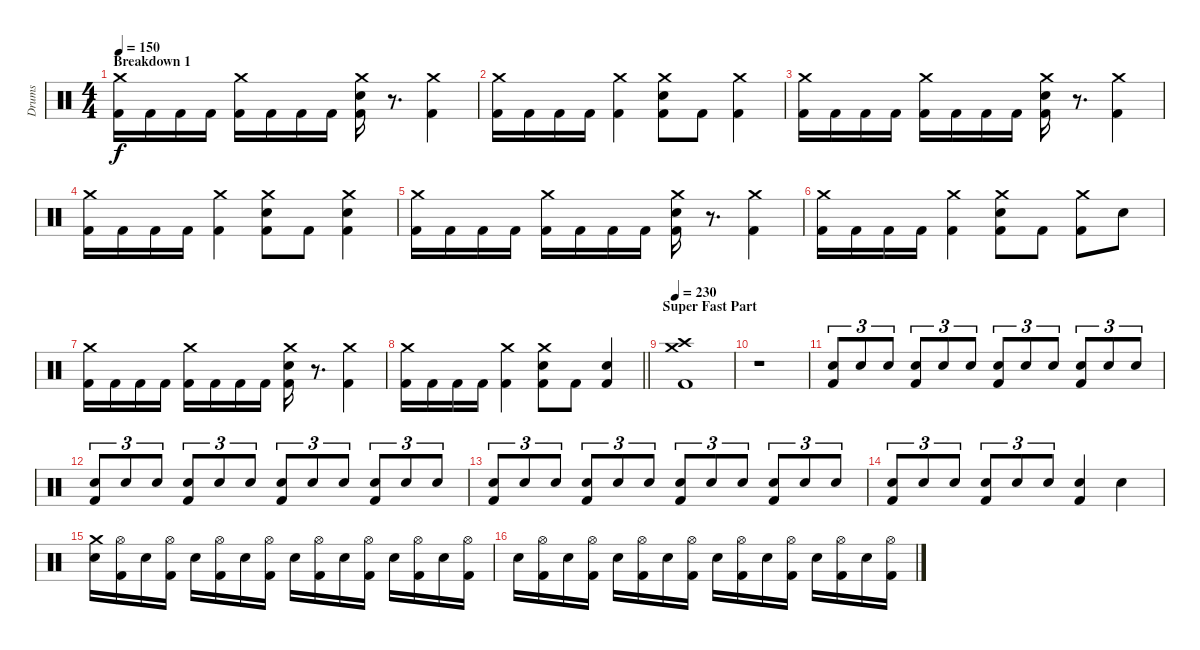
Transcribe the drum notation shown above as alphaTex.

\track ("Drums" "Drums") {instrument percussion}
\staff {score}
\articulation defaults
\ts (4 4)
\section ("" "Breakdown 1")
\tempo 150
\clef neutral
\ks c
("Crash medium (hit)" "Kick (hit) 2").16{dy f} "Kick (hit) 2".16 "Kick (hit) 2".16 "Kick (hit) 2".16 ("Crash medium (hit)" "Kick (hit) 2").16 "Kick (hit) 2".16 "Kick (hit) 2".16 "Kick (hit) 2".16 ("Crash medium (hit)" "Snare (hit) 2" "Kick (hit) 2").16 r.8{d} ("Crash medium (hit)" "Kick (hit) 2").4 |
("Crash medium (hit)" "Kick (hit) 2").16 "Kick (hit) 2".16 "Kick (hit) 2".16 "Kick (hit) 2".16 ("Crash medium (hit)" "Kick (hit) 2").4 ("Crash medium (hit)" "Snare (hit) 2" "Kick (hit) 2").8 "Kick (hit) 2".8 ("Crash medium (hit)" "Kick (hit) 2").4 |
("Crash medium (hit)" "Kick (hit) 2").16 "Kick (hit) 2".16 "Kick (hit) 2".16 "Kick (hit) 2".16 ("Crash medium (hit)" "Kick (hit) 2").16 "Kick (hit) 2".16 "Kick (hit) 2".16 "Kick (hit) 2".16 ("Crash medium (hit)" "Snare (hit) 2" "Kick (hit) 2").16 r.8{d} ("Crash medium (hit)" "Kick (hit) 2").4 |
("Crash medium (hit)" "Kick (hit) 2").16 "Kick (hit) 2".16 "Kick (hit) 2".16 "Kick (hit) 2".16 ("Crash medium (hit)" "Kick (hit) 2").4 ("Crash medium (hit)" "Snare (hit) 2" "Kick (hit) 2").8 "Kick (hit) 2".8 ("Crash medium (hit)" "Snare (hit) 2" "Kick (hit) 2").4 |
("Crash medium (hit)" "Kick (hit) 2").16 "Kick (hit) 2".16 "Kick (hit) 2".16 "Kick (hit) 2".16 ("Crash medium (hit)" "Kick (hit) 2").16 "Kick (hit) 2".16 "Kick (hit) 2".16 "Kick (hit) 2".16 ("Crash medium (hit)" "Snare (hit) 2" "Kick (hit) 2").16 r.8{d} ("Crash medium (hit)" "Kick (hit) 2").4 |
("Crash medium (hit)" "Kick (hit) 2").16 "Kick (hit) 2".16 "Kick (hit) 2".16 "Kick (hit) 2".16 ("Crash medium (hit)" "Kick (hit) 2").4 ("Crash medium (hit)" "Snare (hit) 2" "Kick (hit) 2").8 "Kick (hit) 2".8 ("Crash medium (hit)" "Kick (hit) 2").8 "Snare (hit) 2".8 |
("Crash medium (hit)" "Kick (hit) 2").16 "Kick (hit) 2".16 "Kick (hit) 2".16 "Kick (hit) 2".16 ("Crash medium (hit)" "Kick (hit) 2").16 "Kick (hit) 2".16 "Kick (hit) 2".16 "Kick (hit) 2".16 ("Crash medium (hit)" "Snare (hit) 2" "Kick (hit) 2").16 r.8{d} ("Crash medium (hit)" "Kick (hit) 2").4 |
\barLineRight lightlight
("Crash medium (hit)" "Kick (hit) 2").16 "Kick (hit) 2".16 "Kick (hit) 2".16 "Kick (hit) 2".16 ("Crash medium (hit)" "Kick (hit) 2").4 ("Crash medium (hit)" "Snare (hit) 2" "Kick (hit) 2").8 "Kick (hit) 2".8 ("Snare (hit) 2" "Kick (hit) 2").4 |
\section ("" "Super Fast Part")
\tempo 230
("Crash medium (hit)" "Crash high (hit)" "Kick (hit) 2").1 |
r.1 |
("Snare (hit) 2" "Kick (hit) 2").8{tu (3 2)} "Snare (hit) 2".8{tu (3 2)} "Snare (hit) 2".8{tu (3 2)} ("Snare (hit) 2" "Kick (hit) 2").8{tu (3 2)} "Snare (hit) 2".8{tu (3 2)} "Snare (hit) 2".8{tu (3 2)} ("Snare (hit) 2" "Kick (hit) 2").8{tu (3 2)} "Snare (hit) 2".8{tu (3 2)} "Snare (hit) 2".8{tu (3 2)} ("Snare (hit) 2" "Kick (hit) 2").8{tu (3 2)} "Snare (hit) 2".8{tu (3 2)} "Snare (hit) 2".8{tu (3 2)} |
("Snare (hit) 2" "Kick (hit) 2").8{tu (3 2)} "Snare (hit) 2".8{tu (3 2)} "Snare (hit) 2".8{tu (3 2)} ("Snare (hit) 2" "Kick (hit) 2").8{tu (3 2)} "Snare (hit) 2".8{tu (3 2)} "Snare (hit) 2".8{tu (3 2)} ("Snare (hit) 2" "Kick (hit) 2").8{tu (3 2)} "Snare (hit) 2".8{tu (3 2)} "Snare (hit) 2".8{tu (3 2)} ("Snare (hit) 2" "Kick (hit) 2").8{tu (3 2)} "Snare (hit) 2".8{tu (3 2)} "Snare (hit) 2".8{tu (3 2)} |
("Snare (hit) 2" "Kick (hit) 2").8{tu (3 2)} "Snare (hit) 2".8{tu (3 2)} "Snare (hit) 2".8{tu (3 2)} ("Snare (hit) 2" "Kick (hit) 2").8{tu (3 2)} "Snare (hit) 2".8{tu (3 2)} "Snare (hit) 2".8{tu (3 2)} ("Snare (hit) 2" "Kick (hit) 2").8{tu (3 2)} "Snare (hit) 2".8{tu (3 2)} "Snare (hit) 2".8{tu (3 2)} ("Snare (hit) 2" "Kick (hit) 2").8{tu (3 2)} "Snare (hit) 2".8{tu (3 2)} "Snare (hit) 2".8{tu (3 2)} |
("Snare (hit) 2" "Kick (hit) 2").8{tu (3 2)} "Snare (hit) 2".8{tu (3 2)} "Snare (hit) 2".8{tu (3 2)} ("Snare (hit) 2" "Kick (hit) 2").8{tu (3 2)} "Snare (hit) 2".8{tu (3 2)} "Snare (hit) 2".8{tu (3 2)} ("Snare (hit) 2" "Kick (hit) 2").4 "Snare (hit) 2".4 |
("Crash medium (hit)" "Snare (hit) 2").16 ("Hi-Hat (open)" "Kick (hit) 2").16 "Snare (hit) 2".16 ("Hi-Hat (open)" "Kick (hit) 2").16 "Snare (hit) 2".16 ("Hi-Hat (open)" "Kick (hit) 2").16 "Snare (hit) 2".16 ("Hi-Hat (open)" "Kick (hit) 2").16 "Snare (hit) 2".16 ("Hi-Hat (open)" "Kick (hit) 2").16 "Snare (hit) 2".16 ("Hi-Hat (open)" "Kick (hit) 2").16 "Snare (hit) 2".16 ("Hi-Hat (open)" "Kick (hit) 2").16 "Snare (hit) 2".16 ("Hi-Hat (open)" "Kick (hit) 2").16 |
"Snare (hit) 2".16 ("Hi-Hat (open)" "Kick (hit) 2").16 "Snare (hit) 2".16 ("Hi-Hat (open)" "Kick (hit) 2").16 "Snare (hit) 2".16 ("Hi-Hat (open)" "Kick (hit) 2").16 "Snare (hit) 2".16 ("Hi-Hat (open)" "Kick (hit) 2").16 "Snare (hit) 2".16 ("Hi-Hat (open)" "Kick (hit) 2").16 "Snare (hit) 2".16 ("Hi-Hat (open)" "Kick (hit) 2").16 "Snare (hit) 2".16 ("Hi-Hat (open)" "Kick (hit) 2").16 "Snare (hit) 2".16 ("Hi-Hat (open)" "Kick (hit) 2").16
